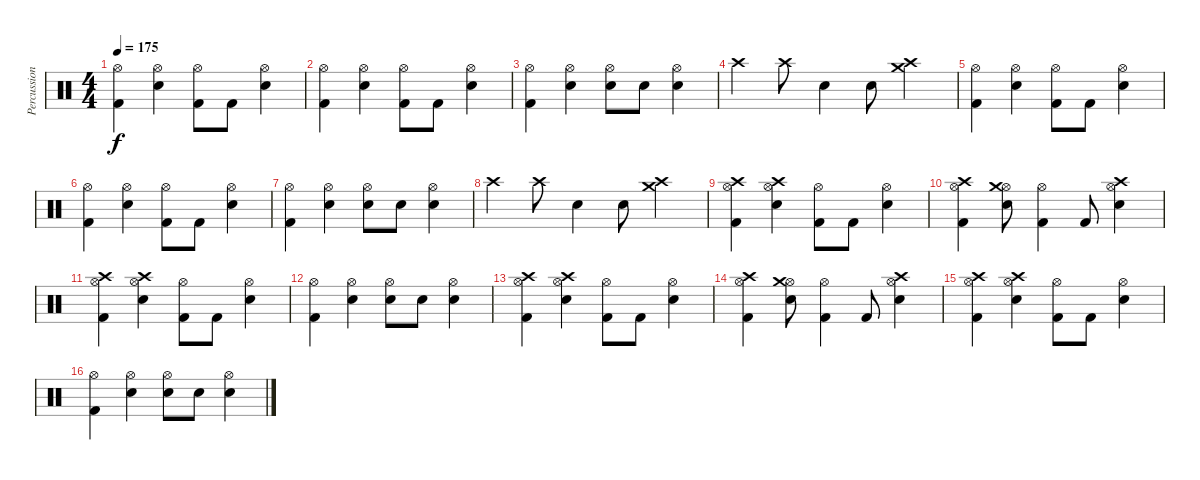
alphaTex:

\track ("Percussion" "Percussion") {instrument percussion}
\staff {score}
\articulation defaults
\ts (4 4)
\tempo 175
\clef neutral
\ks c
("Hi-Hat (open)" "Kick (hit) 2").4{dy f} ("Hi-Hat (open)" "Snare (hit) 2").4 ("Hi-Hat (open)" "Kick (hit) 2").8 "Kick (hit) 2".8 ("Hi-Hat (open)" "Snare (hit) 2").4 |
("Hi-Hat (open)" "Kick (hit) 2").4 ("Hi-Hat (open)" "Snare (hit) 2").4 ("Hi-Hat (open)" "Kick (hit) 2").8 "Kick (hit) 2".8 ("Hi-Hat (open)" "Snare (hit) 2").4 |
("Hi-Hat (open)" "Kick (hit) 2").4 ("Hi-Hat (open)" "Snare (hit) 2").4 ("Hi-Hat (open)" "Snare (hit) 2").8 "Snare (hit) 2".8 ("Hi-Hat (open)" "Snare (hit) 2").4 |
"Crash high (hit)".4 "Crash high (hit)".8 "Snare (hit) 2".4 "Snare (hit) 2".8 ("Crash high (hit)" "Crash medium (hit)").4 |
("Hi-Hat (open)" "Kick (hit) 2").4 ("Hi-Hat (open)" "Snare (hit) 2").4 ("Hi-Hat (open)" "Kick (hit) 2").8 "Kick (hit) 2".8 ("Hi-Hat (open)" "Snare (hit) 2").4 |
("Hi-Hat (open)" "Kick (hit) 2").4 ("Hi-Hat (open)" "Snare (hit) 2").4 ("Hi-Hat (open)" "Kick (hit) 2").8 "Kick (hit) 2".8 ("Hi-Hat (open)" "Snare (hit) 2").4 |
("Hi-Hat (open)" "Kick (hit) 2").4 ("Hi-Hat (open)" "Snare (hit) 2").4 ("Hi-Hat (open)" "Snare (hit) 2").8 "Snare (hit) 2".8 ("Hi-Hat (open)" "Snare (hit) 2").4 |
"Crash high (hit)".4 "Crash high (hit)".8 "Snare (hit) 2".4 "Snare (hit) 2".8 ("Crash high (hit)" "Crash medium (hit)").4 |
("Hi-Hat (open)" "Crash high (hit)" "Kick (hit) 2").4 ("Hi-Hat (open)" "Crash high (hit)" "Snare (hit) 2").4 ("Hi-Hat (open)" "Kick (hit) 2").8 "Kick (hit) 2".8 ("Hi-Hat (open)" "Snare (hit) 2").4 |
("Hi-Hat (open)" "Crash high (hit)" "Kick (hit) 2").4 ("Hi-Hat (open)" "Crash medium (hit)" "Snare (hit) 2").8 ("Hi-Hat (open)" "Kick (hit) 2").4 "Kick (hit) 2".8 ("Hi-Hat (open)" "Crash high (hit)" "Snare (hit) 2").4 |
("Hi-Hat (open)" "Crash high (hit)" "Kick (hit) 2").4 ("Hi-Hat (open)" "Crash high (hit)" "Snare (hit) 2").4 ("Hi-Hat (open)" "Kick (hit) 2").8 "Kick (hit) 2".8 ("Hi-Hat (open)" "Snare (hit) 2").4 |
("Hi-Hat (open)" "Kick (hit) 2").4 ("Hi-Hat (open)" "Snare (hit) 2").4 ("Hi-Hat (open)" "Snare (hit) 2").8 "Snare (hit) 2".8 ("Hi-Hat (open)" "Snare (hit) 2").4 |
("Hi-Hat (open)" "Crash high (hit)" "Kick (hit) 2").4 ("Hi-Hat (open)" "Crash high (hit)" "Snare (hit) 2").4 ("Hi-Hat (open)" "Kick (hit) 2").8 "Kick (hit) 2".8 ("Hi-Hat (open)" "Snare (hit) 2").4 |
("Hi-Hat (open)" "Crash high (hit)" "Kick (hit) 2").4 ("Hi-Hat (open)" "Crash medium (hit)" "Snare (hit) 2").8 ("Hi-Hat (open)" "Kick (hit) 2").4 "Kick (hit) 2".8 ("Hi-Hat (open)" "Crash high (hit)" "Snare (hit) 2").4 |
("Hi-Hat (open)" "Crash high (hit)" "Kick (hit) 2").4 ("Hi-Hat (open)" "Crash high (hit)" "Snare (hit) 2").4 ("Hi-Hat (open)" "Kick (hit) 2").8 "Kick (hit) 2".8 ("Hi-Hat (open)" "Snare (hit) 2").4 |
("Hi-Hat (open)" "Kick (hit) 2").4 ("Hi-Hat (open)" "Snare (hit) 2").4 ("Hi-Hat (open)" "Snare (hit) 2").8 "Snare (hit) 2".8 ("Hi-Hat (open)" "Snare (hit) 2").4
